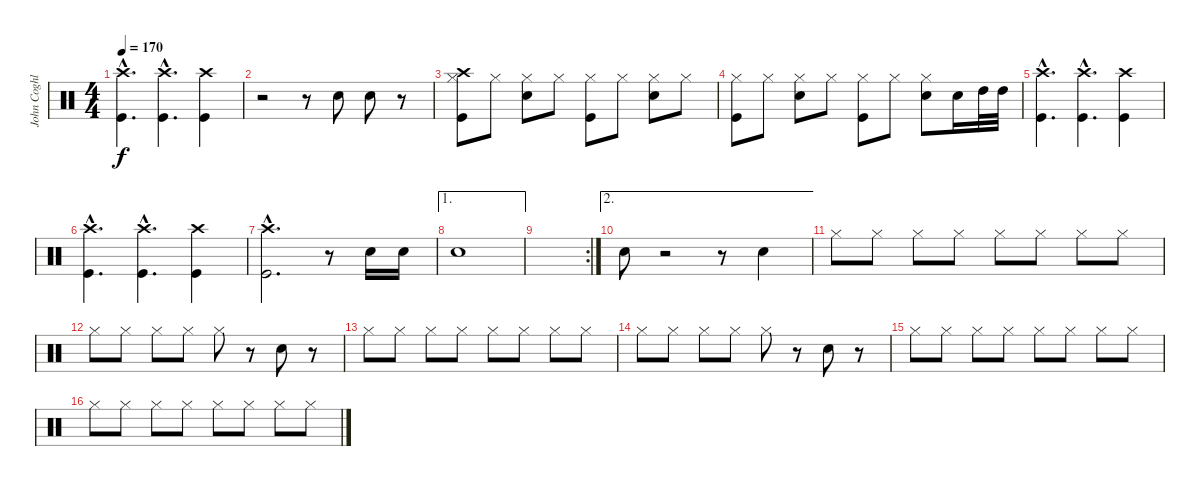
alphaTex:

\track ("John Coghlan" "John Coghl") {instrument percussion}
\staff {score}
\articulation defaults
\ts (4 4)
\tempo 170
\clef neutral
\ks c
("Crash high (hit)"{hac} "Kick (hit)"{hac}).4{d dy f} ("Crash high (hit)"{hac} "Kick (hit)"{hac}).4{d} ("Crash high (hit)" "Kick (hit)").4 |
r.2 r.8 "Electric Snare (hit)".8 "Electric Snare (hit)".8 r.8 |
("Crash high (hit)" "Hi-Hat (closed)" "Kick (hit)").8 "Hi-Hat (closed)".8 ("Hi-Hat (closed)" "Electric Snare (hit)").8 "Hi-Hat (closed)".8 ("Hi-Hat (closed)" "Kick (hit)").8 "Hi-Hat (closed)".8 ("Hi-Hat (closed)" "Electric Snare (hit)").8 "Hi-Hat (closed)".8 |
("Hi-Hat (closed)" "Kick (hit)").8 "Hi-Hat (closed)".8 ("Hi-Hat (closed)" "Electric Snare (hit)").8 "Hi-Hat (closed)".8 ("Hi-Hat (closed)" "Kick (hit)").8 "Hi-Hat (closed)".8 ("Hi-Hat (closed)" "Electric Snare (hit)").8 "Electric Snare (hit)".16 "High Tom (hit)".32 "High Tom (hit)".32 |
("Crash high (hit)"{hac} "Kick (hit)"{hac}).4{d} ("Crash high (hit)"{hac} "Kick (hit)"{hac}).4{d} ("Crash high (hit)" "Kick (hit)").4 |
("Crash high (hit)"{hac} "Kick (hit)"{hac}).4{d} ("Crash high (hit)"{hac} "Kick (hit)"{hac}).4{d} ("Crash high (hit)" "Kick (hit)").4 |
("Crash high (hit)"{hac} "Kick (hit)"{hac}).2{d} r.8 "Electric Snare (hit)".16 "Electric Snare (hit)".16 |
\ae 1 "Electric Snare (hit)".1
|
\rc 2
|
\ae 2 "Electric Snare (hit)".8
r.2 r.8 "Electric Snare (hit)".4 |
"Hi-Hat (closed)".8 "Hi-Hat (closed)".8 "Hi-Hat (closed)".8 "Hi-Hat (closed)".8 "Hi-Hat (closed)".8 "Hi-Hat (closed)".8 "Hi-Hat (closed)".8 "Hi-Hat (closed)".8 |
"Hi-Hat (closed)".8 "Hi-Hat (closed)".8 "Hi-Hat (closed)".8 "Hi-Hat (closed)".8 "Hi-Hat (closed)".8 r.8 "Electric Snare (hit)".8 r.8 |
"Hi-Hat (closed)".8 "Hi-Hat (closed)".8 "Hi-Hat (closed)".8 "Hi-Hat (closed)".8 "Hi-Hat (closed)".8 "Hi-Hat (closed)".8 "Hi-Hat (closed)".8 "Hi-Hat (closed)".8 |
"Hi-Hat (closed)".8 "Hi-Hat (closed)".8 "Hi-Hat (closed)".8 "Hi-Hat (closed)".8 "Hi-Hat (closed)".8 r.8 "Electric Snare (hit)".8 r.8 |
"Hi-Hat (closed)".8 "Hi-Hat (closed)".8 "Hi-Hat (closed)".8 "Hi-Hat (closed)".8 "Hi-Hat (closed)".8 "Hi-Hat (closed)".8 "Hi-Hat (closed)".8 "Hi-Hat (closed)".8 |
"Hi-Hat (closed)".8 "Hi-Hat (closed)".8 "Hi-Hat (closed)".8 "Hi-Hat (closed)".8 "Hi-Hat (closed)".8 "Hi-Hat (closed)".8 "Hi-Hat (closed)".8 "Hi-Hat (closed)".8
